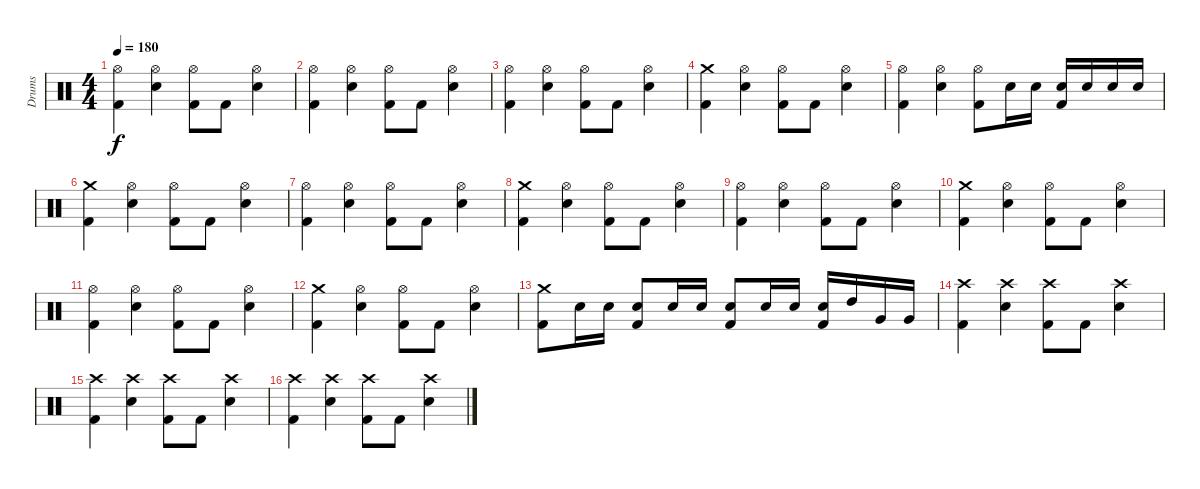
\track ("Drums" "Drums") {instrument percussion}
\staff {score}
\articulation defaults
\ts (4 4)
\tempo 180
\clef neutral
\ks c
("Hi-Hat (open)" "Kick (hit) 2").4{dy f} ("Hi-Hat (open)" "Snare (hit) 2").4 ("Hi-Hat (open)" "Kick (hit) 2").8 "Kick (hit) 2".8 ("Hi-Hat (open)" "Snare (hit) 2").4 |
("Hi-Hat (open)" "Kick (hit) 2").4 ("Hi-Hat (open)" "Snare (hit) 2").4 ("Hi-Hat (open)" "Kick (hit) 2").8 "Kick (hit) 2".8 ("Hi-Hat (open)" "Snare (hit) 2").4 |
("Hi-Hat (open)" "Kick (hit) 2").4 ("Hi-Hat (open)" "Snare (hit) 2").4 ("Hi-Hat (open)" "Kick (hit) 2").8 "Kick (hit) 2".8 ("Hi-Hat (open)" "Snare (hit) 2").4 |
("Crash medium (hit)" "Kick (hit) 2").4 ("Hi-Hat (open)" "Snare (hit) 2").4 ("Hi-Hat (open)" "Kick (hit) 2").8 "Kick (hit) 2".8 ("Hi-Hat (open)" "Snare (hit) 2").4 |
("Hi-Hat (open)" "Kick (hit) 2").4 ("Hi-Hat (open)" "Snare (hit) 2").4 ("Hi-Hat (open)" "Kick (hit) 2").8 "Snare (hit) 2".16 "Snare (hit) 2".16 ("Snare (hit) 2" "Kick (hit) 2").16 "Snare (hit) 2".16 "Snare (hit) 2".16 "Snare (hit) 2".16 |
("Crash medium (hit)" "Kick (hit) 2").4 ("Hi-Hat (open)" "Snare (hit) 2").4 ("Hi-Hat (open)" "Kick (hit) 2").8 "Kick (hit) 2".8 ("Hi-Hat (open)" "Snare (hit) 2").4 |
("Hi-Hat (open)" "Kick (hit) 2").4 ("Hi-Hat (open)" "Snare (hit) 2").4 ("Hi-Hat (open)" "Kick (hit) 2").8 "Kick (hit) 2".8 ("Hi-Hat (open)" "Snare (hit) 2").4 |
("Crash medium (hit)" "Kick (hit) 2").4 ("Hi-Hat (open)" "Snare (hit) 2").4 ("Hi-Hat (open)" "Kick (hit) 2").8 "Kick (hit) 2".8 ("Hi-Hat (open)" "Snare (hit) 2").4 |
("Hi-Hat (open)" "Kick (hit) 2").4 ("Hi-Hat (open)" "Snare (hit) 2").4 ("Hi-Hat (open)" "Kick (hit) 2").8 "Kick (hit) 2".8 ("Hi-Hat (open)" "Snare (hit) 2").4 |
("Crash medium (hit)" "Kick (hit) 2").4 ("Hi-Hat (open)" "Snare (hit) 2").4 ("Hi-Hat (open)" "Kick (hit) 2").8 "Kick (hit) 2".8 ("Hi-Hat (open)" "Snare (hit) 2").4 |
("Hi-Hat (open)" "Kick (hit) 2").4 ("Hi-Hat (open)" "Snare (hit) 2").4 ("Hi-Hat (open)" "Kick (hit) 2").8 "Kick (hit) 2".8 ("Hi-Hat (open)" "Snare (hit) 2").4 |
("Crash medium (hit)" "Kick (hit) 2").4 ("Hi-Hat (open)" "Snare (hit) 2").4 ("Hi-Hat (open)" "Kick (hit) 2").8 "Kick (hit) 2".8 ("Hi-Hat (open)" "Snare (hit) 2").4 |
("Crash medium (hit)" "Kick (hit) 2").8 "Snare (hit) 2".16 "Snare (hit) 2".16 ("Snare (hit) 2" "Kick (hit) 2").8 "Snare (hit) 2".16 "Snare (hit) 2".16 ("Snare (hit) 2" "Kick (hit) 2").8 "Snare (hit) 2".16 "Snare (hit) 2".16 ("Snare (hit) 2" "Kick (hit) 2").16 "High Tom (hit)".16 "Very Low Tom (hit)".16 "Very Low Tom (hit)".16 |
("Crash high (hit)" "Kick (hit) 2").4 ("Crash high (hit)" "Snare (hit) 2").4 ("Crash high (hit)" "Kick (hit) 2").8 "Kick (hit) 2".8 ("Crash high (hit)" "Snare (hit) 2").4 |
("Crash high (hit)" "Kick (hit) 2").4 ("Crash high (hit)" "Snare (hit) 2").4 ("Crash high (hit)" "Kick (hit) 2").8 "Kick (hit) 2".8 ("Crash high (hit)" "Snare (hit) 2").4 |
("Crash high (hit)" "Kick (hit) 2").4 ("Crash high (hit)" "Snare (hit) 2").4 ("Crash high (hit)" "Kick (hit) 2").8 "Kick (hit) 2".8 ("Crash high (hit)" "Snare (hit) 2").4
